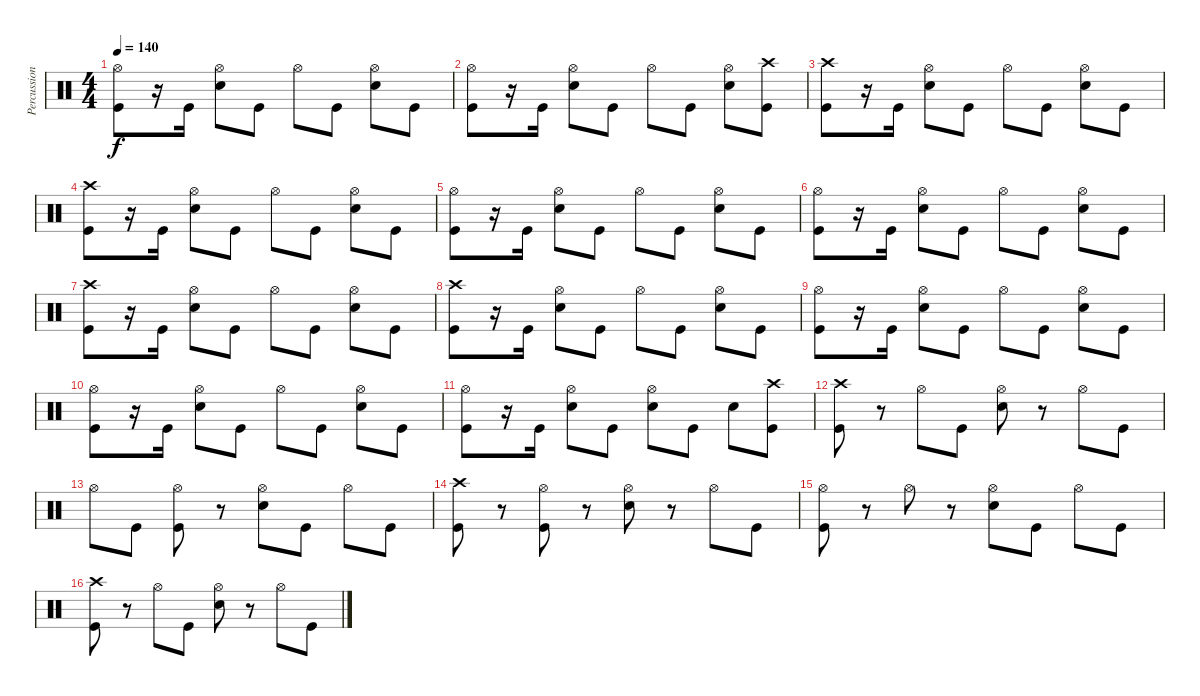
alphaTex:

\track ("Percussion" "Percussion") {instrument percussion}
\staff {score}
\articulation defaults
\ts (4 4)
\tempo 140
\clef neutral
\ks c
("Hi-Hat (open)" "Kick (hit)").8{dy f} r.16 "Kick (hit)".16 ("Hi-Hat (open)" "Snare (hit) 2").8 "Kick (hit)".8 "Hi-Hat (open)".8 "Kick (hit)".8 ("Hi-Hat (open)" "Snare (hit) 2").8 "Kick (hit)".8 |
("Hi-Hat (open)" "Kick (hit)").8 r.16 "Kick (hit)".16 ("Hi-Hat (open)" "Snare (hit) 2").8 "Kick (hit)".8 "Hi-Hat (open)".8 "Kick (hit)".8 ("Hi-Hat (open)" "Snare (hit) 2").8 ("Crash high (hit)" "Kick (hit)").8 |
("Crash high (hit)" "Kick (hit)").8 r.16 "Kick (hit)".16 ("Hi-Hat (open)" "Snare (hit) 2").8 "Kick (hit)".8 "Hi-Hat (open)".8 "Kick (hit)".8 ("Hi-Hat (open)" "Snare (hit) 2").8 "Kick (hit)".8 |
("Crash high (hit)" "Kick (hit)").8 r.16 "Kick (hit)".16 ("Hi-Hat (open)" "Snare (hit) 2").8 "Kick (hit)".8 "Hi-Hat (open)".8 "Kick (hit)".8 ("Hi-Hat (open)" "Snare (hit) 2").8 "Kick (hit)".8 |
("Hi-Hat (open)" "Kick (hit)").8 r.16 "Kick (hit)".16 ("Hi-Hat (open)" "Snare (hit) 2").8 "Kick (hit)".8 "Hi-Hat (open)".8 "Kick (hit)".8 ("Hi-Hat (open)" "Snare (hit) 2").8 "Kick (hit)".8 |
("Hi-Hat (open)" "Kick (hit)").8 r.16 "Kick (hit)".16 ("Hi-Hat (open)" "Snare (hit) 2").8 "Kick (hit)".8 "Hi-Hat (open)".8 "Kick (hit)".8 ("Hi-Hat (open)" "Snare (hit) 2").8 "Kick (hit)".8 |
("Crash high (hit)" "Kick (hit)").8 r.16 "Kick (hit)".16 ("Hi-Hat (open)" "Snare (hit) 2").8 "Kick (hit)".8 "Hi-Hat (open)".8 "Kick (hit)".8 ("Hi-Hat (open)" "Snare (hit) 2").8 "Kick (hit)".8 |
("Crash high (hit)" "Kick (hit)").8 r.16 "Kick (hit)".16 ("Hi-Hat (open)" "Snare (hit) 2").8 "Kick (hit)".8 "Hi-Hat (open)".8 "Kick (hit)".8 ("Hi-Hat (open)" "Snare (hit) 2").8 "Kick (hit)".8 |
("Hi-Hat (open)" "Kick (hit)").8 r.16 "Kick (hit)".16 ("Hi-Hat (open)" "Snare (hit) 2").8 "Kick (hit)".8 "Hi-Hat (open)".8 "Kick (hit)".8 ("Hi-Hat (open)" "Snare (hit) 2").8 "Kick (hit)".8 |
("Hi-Hat (open)" "Kick (hit)").8 r.16 "Kick (hit)".16 ("Hi-Hat (open)" "Snare (hit) 2").8 "Kick (hit)".8 "Hi-Hat (open)".8 "Kick (hit)".8 ("Hi-Hat (open)" "Snare (hit) 2").8 "Kick (hit)".8 |
("Hi-Hat (open)" "Kick (hit)").8 r.16 "Kick (hit)".16 ("Hi-Hat (open)" "Snare (hit) 2").8 "Kick (hit)".8 ("Hi-Hat (open)" "Snare (hit) 2").8 "Kick (hit)".8 "Snare (hit) 2".8 ("Crash high (hit)" "Kick (hit)").8 |
("Crash high (hit)" "Kick (hit)").8 r.8 "Hi-Hat (open)".8 "Kick (hit)".8 ("Hi-Hat (open)" "Snare (hit) 2").8 r.8 "Hi-Hat (open)".8 "Kick (hit)".8 |
"Hi-Hat (open)".8 "Kick (hit)".8 ("Hi-Hat (open)" "Kick (hit)").8 r.8 ("Hi-Hat (open)" "Snare (hit) 2").8 "Kick (hit)".8 "Hi-Hat (open)".8 "Kick (hit)".8 |
("Crash high (hit)" "Kick (hit)").8 r.8 ("Hi-Hat (open)" "Kick (hit)").8 r.8 ("Hi-Hat (open)" "Snare (hit) 2").8 r.8 "Hi-Hat (open)".8 "Kick (hit)".8 |
("Hi-Hat (open)" "Kick (hit)").8 r.8 "Hi-Hat (open)".8 r.8 ("Hi-Hat (open)" "Snare (hit) 2").8 "Kick (hit)".8 "Hi-Hat (open)".8 "Kick (hit)".8 |
("Crash high (hit)" "Kick (hit)").8 r.8 "Hi-Hat (open)".8 "Kick (hit)".8 ("Hi-Hat (open)" "Snare (hit) 2").8 r.8 "Hi-Hat (open)".8 "Kick (hit)".8
